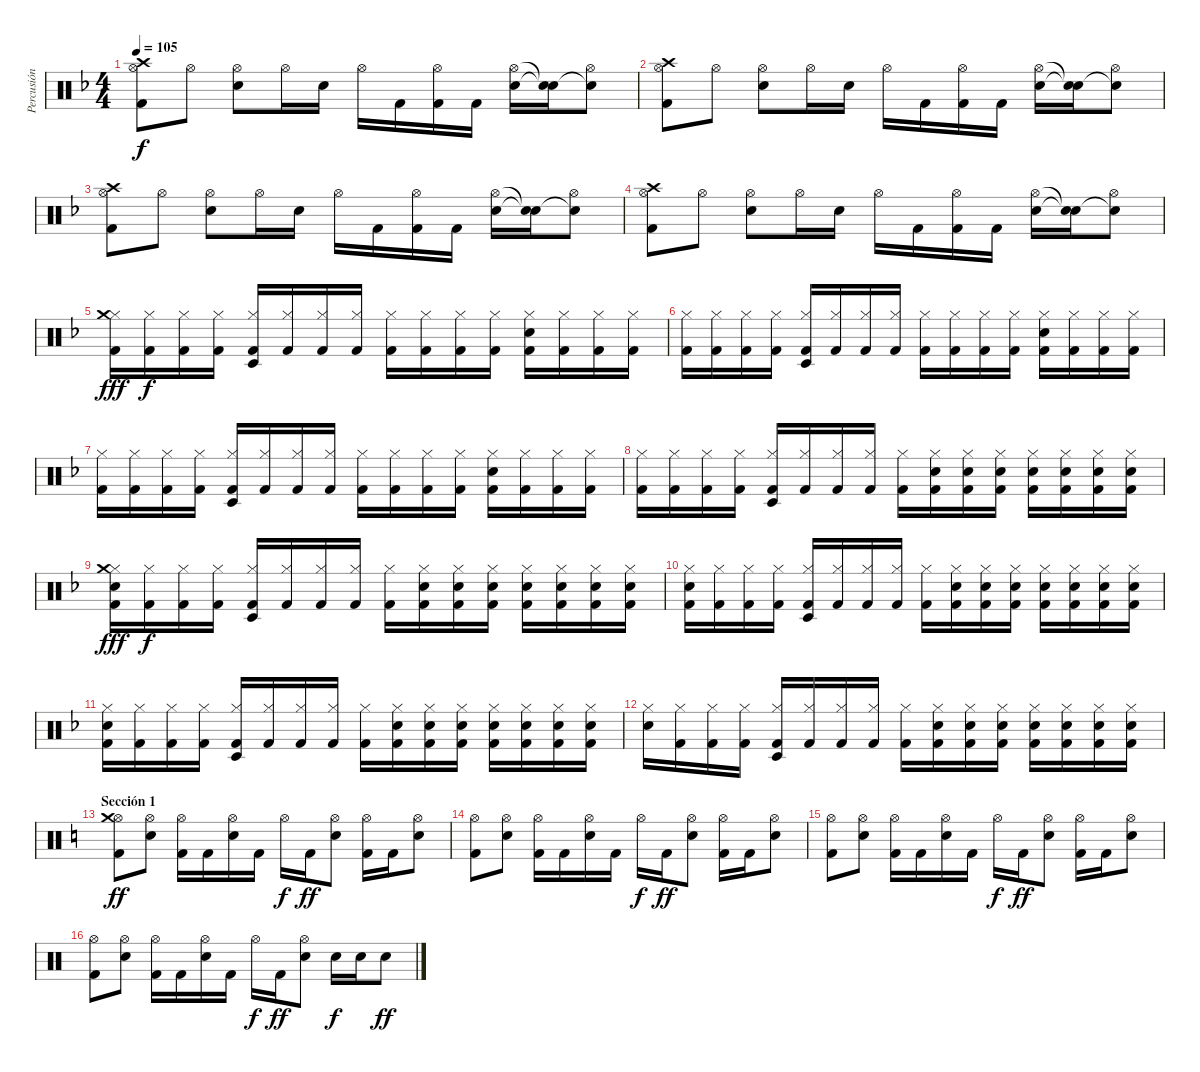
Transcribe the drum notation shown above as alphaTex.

\track ("Percusión" "Percusión") {instrument percussion}
\staff {score}
\articulation defaults
\ts (4 4)
\tempo 105
\clef neutral
\ks f
("Hi-Hat (open)" "Crash high (hit)" "Kick (hit) 2").8{dy f} "Hi-Hat (open)".8 ("Hi-Hat (open)" "Snare (hit) 2").8 "Hi-Hat (open)".16 "Snare (hit) 2".16 "Hi-Hat (open)".16 "Kick (hit) 2".16 ("Hi-Hat (open)" "Kick (hit) 2").16 "Kick (hit) 2".16 ("Hi-Hat (open)" "Snare (hit) 2").16 ("Snare (hit)"{t} "Snare (hit)"{t}).16 ("Hi-Hat (open)" "Snare (hit)"{t}).8 |
("Hi-Hat (open)" "Crash high (hit)" "Kick (hit) 2").8 "Hi-Hat (open)".8 ("Hi-Hat (open)" "Snare (hit) 2").8 "Hi-Hat (open)".16 "Snare (hit) 2".16 "Hi-Hat (open)".16 "Kick (hit) 2".16 ("Hi-Hat (open)" "Kick (hit) 2").16 "Kick (hit) 2".16 ("Hi-Hat (open)" "Snare (hit) 2").16 ("Snare (hit)"{t} "Snare (hit)"{t}).16 ("Hi-Hat (open)" "Snare (hit)"{t}).8 |
("Hi-Hat (open)" "Crash high (hit)" "Kick (hit) 2").8 "Hi-Hat (open)".8 ("Hi-Hat (open)" "Snare (hit) 2").8 "Hi-Hat (open)".16 "Snare (hit) 2".16 "Hi-Hat (open)".16 "Kick (hit) 2".16 ("Hi-Hat (open)" "Kick (hit) 2").16 "Kick (hit) 2".16 ("Hi-Hat (open)" "Snare (hit) 2").16 ("Snare (hit)"{t} "Snare (hit)"{t}).16 ("Hi-Hat (open)" "Snare (hit)"{t}).8 |
("Hi-Hat (open)" "Crash high (hit)" "Kick (hit) 2").8 "Hi-Hat (open)".8 ("Hi-Hat (open)" "Snare (hit) 2").8 "Hi-Hat (open)".16 "Snare (hit) 2".16 "Hi-Hat (open)".16 "Kick (hit) 2".16 ("Hi-Hat (open)" "Kick (hit) 2").16 "Kick (hit) 2".16 ("Hi-Hat (open)" "Snare (hit) 2").16 ("Snare (hit)"{t} "Snare (hit)"{t}).16 ("Hi-Hat (open)" "Snare (hit)"{t}).8 |
("Hi-Hat (closed)" "Kick (hit) 2" "Crash medium (hit)").16{dy fff} ("Hi-Hat (closed)" "Kick (hit) 2").16{dy f} ("Hi-Hat (closed)" "Kick (hit) 2").16 ("Hi-Hat (closed)" "Kick (hit) 2").16 ("Hi-Hat (closed)" "Timbale low (hit)" "Kick (hit) 2").16 ("Hi-Hat (closed)" "Kick (hit) 2").16 ("Hi-Hat (closed)" "Kick (hit) 2").16 ("Hi-Hat (closed)" "Kick (hit) 2").16 ("Hi-Hat (closed)" "Kick (hit) 2").16 ("Hi-Hat (closed)" "Kick (hit) 2").16 ("Hi-Hat (closed)" "Kick (hit) 2").16 ("Hi-Hat (closed)" "Kick (hit) 2").16 ("Hi-Hat (closed)" "Snare (hit) 2" "Kick (hit) 2").16 ("Hi-Hat (closed)" "Kick (hit) 2").16 ("Hi-Hat (closed)" "Kick (hit) 2").16 ("Hi-Hat (closed)" "Kick (hit) 2").16 |
("Hi-Hat (closed)" "Kick (hit) 2").16 ("Hi-Hat (closed)" "Kick (hit) 2").16 ("Hi-Hat (closed)" "Kick (hit) 2").16 ("Hi-Hat (closed)" "Kick (hit) 2").16 ("Hi-Hat (closed)" "Timbale low (hit)" "Kick (hit) 2").16 ("Hi-Hat (closed)" "Kick (hit) 2").16 ("Hi-Hat (closed)" "Kick (hit) 2").16 ("Hi-Hat (closed)" "Kick (hit) 2").16 ("Hi-Hat (closed)" "Kick (hit) 2").16 ("Hi-Hat (closed)" "Kick (hit) 2").16 ("Hi-Hat (closed)" "Kick (hit) 2").16 ("Hi-Hat (closed)" "Kick (hit) 2").16 ("Hi-Hat (closed)" "Snare (hit) 2" "Kick (hit) 2").16 ("Hi-Hat (closed)" "Kick (hit) 2").16 ("Hi-Hat (closed)" "Kick (hit) 2").16 ("Hi-Hat (closed)" "Kick (hit) 2").16 |
("Hi-Hat (closed)" "Kick (hit) 2").16 ("Hi-Hat (closed)" "Kick (hit) 2").16 ("Hi-Hat (closed)" "Kick (hit) 2").16 ("Hi-Hat (closed)" "Kick (hit) 2").16 ("Hi-Hat (closed)" "Timbale low (hit)" "Kick (hit) 2").16 ("Hi-Hat (closed)" "Kick (hit) 2").16 ("Hi-Hat (closed)" "Kick (hit) 2").16 ("Hi-Hat (closed)" "Kick (hit) 2").16 ("Hi-Hat (closed)" "Kick (hit) 2").16 ("Hi-Hat (closed)" "Kick (hit) 2").16 ("Hi-Hat (closed)" "Kick (hit) 2").16 ("Hi-Hat (closed)" "Kick (hit) 2").16 ("Hi-Hat (closed)" "Snare (hit) 2" "Kick (hit) 2").16 ("Hi-Hat (closed)" "Kick (hit) 2").16 ("Hi-Hat (closed)" "Kick (hit) 2").16 ("Hi-Hat (closed)" "Kick (hit) 2").16 |
("Hi-Hat (closed)" "Kick (hit) 2").16 ("Hi-Hat (closed)" "Kick (hit) 2").16 ("Hi-Hat (closed)" "Kick (hit) 2").16 ("Hi-Hat (closed)" "Kick (hit) 2").16 ("Hi-Hat (closed)" "Timbale low (hit)" "Kick (hit) 2").16 ("Hi-Hat (closed)" "Kick (hit) 2").16 ("Hi-Hat (closed)" "Kick (hit) 2").16 ("Hi-Hat (closed)" "Kick (hit) 2").16 ("Hi-Hat (closed)" "Kick (hit) 2").16 ("Hi-Hat (closed)" "Snare (hit) 2" "Kick (hit) 2").16 ("Hi-Hat (closed)" "Snare (hit) 2" "Kick (hit) 2").16 ("Hi-Hat (closed)" "Snare (hit) 2" "Kick (hit) 2").16 ("Hi-Hat (closed)" "Snare (hit) 2" "Kick (hit) 2").16 ("Hi-Hat (closed)" "Snare (hit) 2" "Kick (hit) 2").16 ("Hi-Hat (closed)" "Snare (hit) 2" "Kick (hit) 2").16 ("Hi-Hat (closed)" "Snare (hit) 2" "Kick (hit) 2").16 |
("Hi-Hat (closed)" "Snare (hit) 2" "Kick (hit) 2" "Crash medium (hit)").16{dy fff} ("Hi-Hat (closed)" "Kick (hit) 2").16{dy f} ("Hi-Hat (closed)" "Kick (hit) 2").16 ("Hi-Hat (closed)" "Kick (hit) 2").16 ("Hi-Hat (closed)" "Timbale low (hit)" "Kick (hit) 2").16 ("Hi-Hat (closed)" "Kick (hit) 2").16 ("Hi-Hat (closed)" "Kick (hit) 2").16 ("Hi-Hat (closed)" "Kick (hit) 2").16 ("Hi-Hat (closed)" "Kick (hit) 2").16 ("Hi-Hat (closed)" "Snare (hit) 2" "Kick (hit) 2").16 ("Hi-Hat (closed)" "Snare (hit) 2" "Kick (hit) 2").16 ("Hi-Hat (closed)" "Snare (hit) 2" "Kick (hit) 2").16 ("Hi-Hat (closed)" "Snare (hit) 2" "Kick (hit) 2").16 ("Hi-Hat (closed)" "Snare (hit) 2" "Kick (hit) 2").16 ("Hi-Hat (closed)" "Snare (hit) 2" "Kick (hit) 2").16 ("Hi-Hat (closed)" "Snare (hit) 2" "Kick (hit) 2").16 |
("Hi-Hat (closed)" "Snare (hit) 2" "Kick (hit) 2").16 ("Hi-Hat (closed)" "Kick (hit) 2").16 ("Hi-Hat (closed)" "Kick (hit) 2").16 ("Hi-Hat (closed)" "Kick (hit) 2").16 ("Hi-Hat (closed)" "Timbale low (hit)" "Kick (hit) 2").16 ("Hi-Hat (closed)" "Kick (hit) 2").16 ("Hi-Hat (closed)" "Kick (hit) 2").16 ("Hi-Hat (closed)" "Kick (hit) 2").16 ("Hi-Hat (closed)" "Kick (hit) 2").16 ("Hi-Hat (closed)" "Snare (hit) 2" "Kick (hit) 2").16 ("Hi-Hat (closed)" "Snare (hit) 2" "Kick (hit) 2").16 ("Hi-Hat (closed)" "Snare (hit) 2" "Kick (hit) 2").16 ("Hi-Hat (closed)" "Snare (hit) 2" "Kick (hit) 2").16 ("Hi-Hat (closed)" "Snare (hit) 2" "Kick (hit) 2").16 ("Hi-Hat (closed)" "Snare (hit) 2" "Kick (hit) 2").16 ("Hi-Hat (closed)" "Snare (hit) 2" "Kick (hit) 2").16 |
("Hi-Hat (closed)" "Snare (hit) 2" "Kick (hit) 2").16 ("Hi-Hat (closed)" "Kick (hit) 2").16 ("Hi-Hat (closed)" "Kick (hit) 2").16 ("Hi-Hat (closed)" "Kick (hit) 2").16 ("Hi-Hat (closed)" "Timbale low (hit)" "Kick (hit) 2").16 ("Hi-Hat (closed)" "Kick (hit) 2").16 ("Hi-Hat (closed)" "Kick (hit) 2").16 ("Hi-Hat (closed)" "Kick (hit) 2").16 ("Hi-Hat (closed)" "Kick (hit) 2").16 ("Hi-Hat (closed)" "Snare (hit) 2" "Kick (hit) 2").16 ("Hi-Hat (closed)" "Snare (hit) 2" "Kick (hit) 2").16 ("Hi-Hat (closed)" "Snare (hit) 2" "Kick (hit) 2").16 ("Hi-Hat (closed)" "Snare (hit) 2" "Kick (hit) 2").16 ("Hi-Hat (closed)" "Snare (hit) 2" "Kick (hit) 2").16 ("Hi-Hat (closed)" "Snare (hit) 2" "Kick (hit) 2").16 ("Hi-Hat (closed)" "Snare (hit) 2" "Kick (hit) 2").16 |
("Hi-Hat (closed)" "Snare (hit) 2").16 ("Hi-Hat (closed)" "Kick (hit) 2").16 ("Hi-Hat (closed)" "Kick (hit) 2").16 ("Hi-Hat (closed)" "Kick (hit) 2").16 ("Hi-Hat (closed)" "Timbale low (hit)" "Kick (hit) 2").16 ("Hi-Hat (closed)" "Kick (hit) 2").16 ("Hi-Hat (closed)" "Kick (hit) 2").16 ("Hi-Hat (closed)" "Kick (hit) 2").16 ("Hi-Hat (closed)" "Kick (hit) 2").16 ("Hi-Hat (closed)" "Snare (hit) 2" "Kick (hit) 2").16 ("Hi-Hat (closed)" "Snare (hit) 2" "Kick (hit) 2").16 ("Hi-Hat (closed)" "Snare (hit) 2" "Kick (hit) 2").16 ("Hi-Hat (closed)" "Snare (hit) 2" "Kick (hit) 2").16 ("Hi-Hat (closed)" "Snare (hit) 2" "Kick (hit) 2").16 ("Hi-Hat (closed)" "Snare (hit) 2" "Kick (hit) 2").16 ("Hi-Hat (closed)" "Snare (hit) 2" "Kick (hit) 2").16 |
\section ("" "Sección 1")
\ks c
("Hi-Hat (open)" "Kick (hit) 2" "Crash medium (hit)").8{dy ff} ("Hi-Hat (open)" "Snare (hit) 2").8 ("Hi-Hat (open)" "Kick (hit) 2").16 "Kick (hit) 2".16 ("Hi-Hat (open)" "Snare (hit) 2").16 "Kick (hit) 2".16 "Hi-Hat (open)".16{dy f} "Kick (hit) 2".16{dy ff} ("Hi-Hat (open)" "Snare (hit) 2").8 ("Hi-Hat (open)" "Kick (hit) 2").16 "Kick (hit) 2".16 ("Hi-Hat (open)" "Snare (hit) 2").8 |
("Hi-Hat (open)" "Kick (hit) 2").8 ("Hi-Hat (open)" "Snare (hit) 2").8 ("Hi-Hat (open)" "Kick (hit) 2").16 "Kick (hit) 2".16 ("Hi-Hat (open)" "Snare (hit) 2").16 "Kick (hit) 2".16 "Hi-Hat (open)".16{dy f} "Kick (hit) 2".16{dy ff} ("Hi-Hat (open)" "Snare (hit) 2").8 ("Hi-Hat (open)" "Kick (hit) 2").16 "Kick (hit) 2".16 ("Hi-Hat (open)" "Snare (hit) 2").8 |
("Hi-Hat (open)" "Kick (hit) 2").8 ("Hi-Hat (open)" "Snare (hit) 2").8 ("Hi-Hat (open)" "Kick (hit) 2").16 "Kick (hit) 2".16 ("Hi-Hat (open)" "Snare (hit) 2").16 "Kick (hit) 2".16 "Hi-Hat (open)".16{dy f} "Kick (hit) 2".16{dy ff} ("Hi-Hat (open)" "Snare (hit) 2").8 ("Hi-Hat (open)" "Kick (hit) 2").16 "Kick (hit) 2".16 ("Hi-Hat (open)" "Snare (hit) 2").8 |
("Hi-Hat (open)" "Kick (hit) 2").8 ("Hi-Hat (open)" "Snare (hit) 2").8 ("Hi-Hat (open)" "Kick (hit) 2").16 "Kick (hit) 2".16 ("Hi-Hat (open)" "Snare (hit) 2").16 "Kick (hit) 2".16 "Hi-Hat (open)".16{dy f} "Kick (hit) 2".16{dy ff} ("Hi-Hat (open)" "Snare (hit) 2").8 "Snare (hit) 2".16{dy f} "Snare (hit) 2".16 "Snare (hit) 2".8{dy ff}
